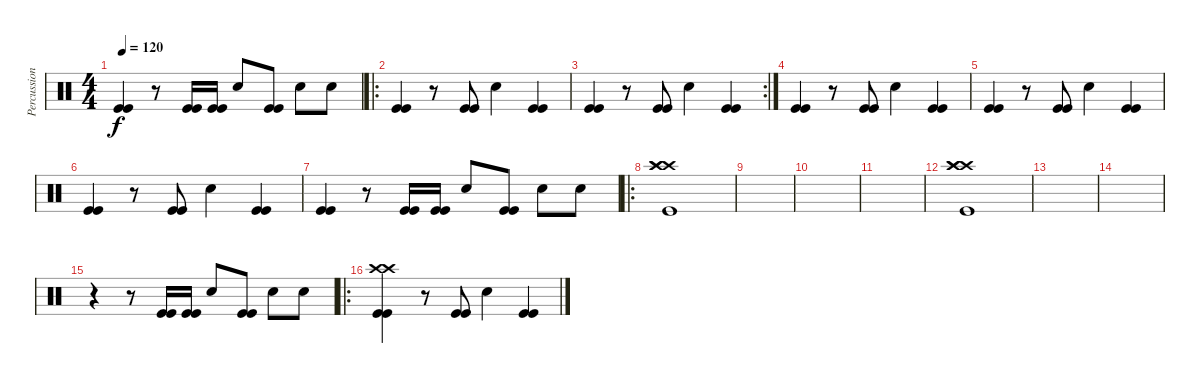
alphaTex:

\track ("Percussion" "Percussion") {instrument percussion}
\staff {score}
\articulation defaults
\ts (4 4)
\tempo 120
\clef neutral
\ks c
("Kick (hit)" "Kick (hit)").4{dy f} r.8 ("Kick (hit)" "Kick (hit)").16 ("Kick (hit)" "Kick (hit)").16 "Electric Snare (hit)".8 ("Kick (hit)" "Kick (hit)").8 "Electric Snare (hit)".8 "Electric Snare (hit)".8 |
\ro
("Kick (hit)" "Kick (hit)").4 r.8 ("Kick (hit)" "Kick (hit)").8 "Electric Snare (hit)".4 ("Kick (hit)" "Kick (hit)").4 |
\rc 2
("Kick (hit)" "Kick (hit)").4 r.8 ("Kick (hit)" "Kick (hit)").8 "Electric Snare (hit)".4 ("Kick (hit)" "Kick (hit)").4 |
("Kick (hit)" "Kick (hit)").4 r.8 ("Kick (hit)" "Kick (hit)").8 "Electric Snare (hit)".4 ("Kick (hit)" "Kick (hit)").4 |
("Kick (hit)" "Kick (hit)").4 r.8 ("Kick (hit)" "Kick (hit)").8 "Electric Snare (hit)".4 ("Kick (hit)" "Kick (hit)").4 |
("Kick (hit)" "Kick (hit)").4 r.8 ("Kick (hit)" "Kick (hit)").8 "Electric Snare (hit)".4 ("Kick (hit)" "Kick (hit)").4 |
("Kick (hit)" "Kick (hit)").4 r.8 ("Kick (hit)" "Kick (hit)").16 ("Kick (hit)" "Kick (hit)").16 "Electric Snare (hit)".8 ("Kick (hit)" "Kick (hit)").8 "Electric Snare (hit)".8 "Electric Snare (hit)".8 |
\ro
("Crash high (hit)" "Crash high (hit)" "Crash high (hit)" "Kick (hit)").1 |
|
|
|
("Crash high (hit)" "Crash high (hit)" "Crash high (hit)" "Kick (hit)").1 |
|
|
r.4 r.8 ("Kick (hit)" "Kick (hit)").16 ("Kick (hit)" "Kick (hit)").16 "Electric Snare (hit)".8 ("Kick (hit)" "Kick (hit)").8 "Electric Snare (hit)".8 "Electric Snare (hit)".8 |
\ro
("Kick (hit)" "Kick (hit)" "Crash high (hit)" "Crash high (hit)").4 r.8 ("Kick (hit)" "Kick (hit)").8 "Electric Snare (hit)".4 ("Kick (hit)" "Kick (hit)").4
